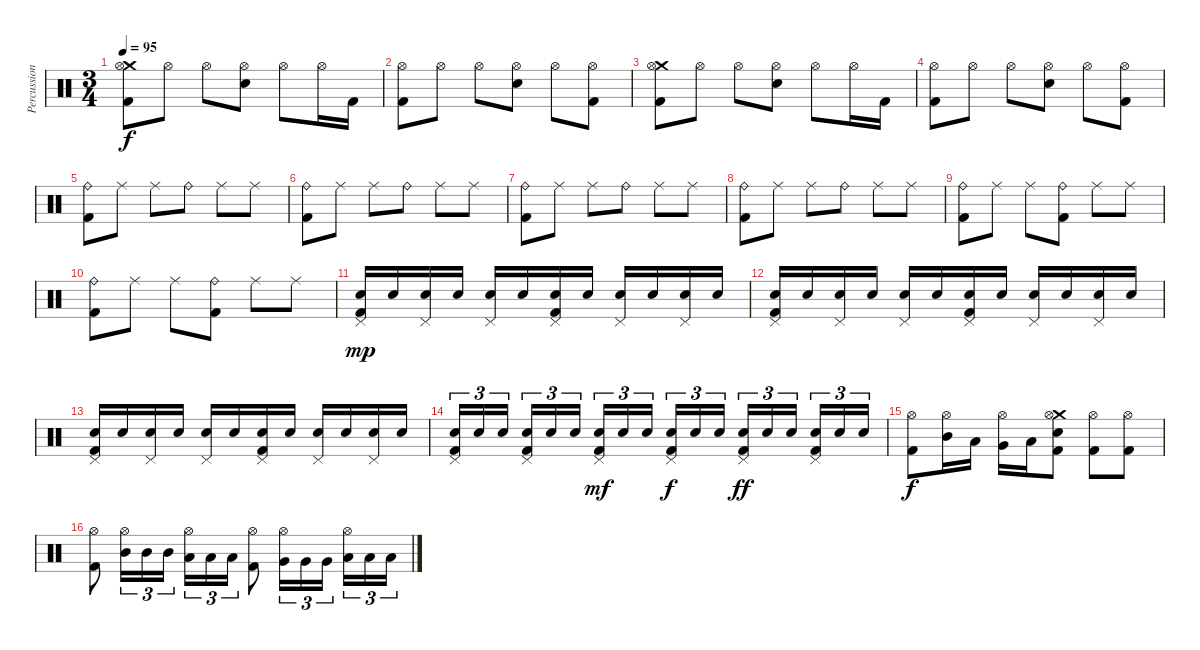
\track ("Percussion" "Percussion") {instrument percussion}
\staff {score}
\articulation defaults
\ts (3 4)
\tempo 95
\clef neutral
\ks c
("Crash medium (hit)" "Hi-Hat (open)" "Kick (hit) 2").8{dy f} "Hi-Hat (open)".8 "Hi-Hat (open)".8 ("Hi-Hat (open)" "Electric Snare (hit)").8 "Hi-Hat (open)".8 "Hi-Hat (open)".16 "Kick (hit) 2".16 |
("Hi-Hat (open)" "Kick (hit) 2").8 "Hi-Hat (open)".8 "Hi-Hat (open)".8 ("Hi-Hat (open)" "Electric Snare (hit)").8 "Hi-Hat (open)".8 ("Hi-Hat (open)" "Kick (hit) 2").8 |
("Crash medium (hit)" "Hi-Hat (open)" "Kick (hit) 2").8 "Hi-Hat (open)".8 "Hi-Hat (open)".8 ("Hi-Hat (open)" "Electric Snare (hit)").8 "Hi-Hat (open)".8 "Hi-Hat (open)".16 "Kick (hit) 2".16 |
("Hi-Hat (open)" "Kick (hit) 2").8 "Hi-Hat (open)".8 "Hi-Hat (open)".8 ("Hi-Hat (open)" "Electric Snare (hit)").8 "Hi-Hat (open)".8 ("Hi-Hat (open)" "Kick (hit) 2").8 |
("Ride (bell)" "Kick (hit) 2").8 "Ride (middle)".8 "Ride (middle)".8 "Ride (bell)".8 "Ride (middle)".8 "Ride (middle)".8 |
("Ride (bell)" "Kick (hit) 2").8 "Ride (middle)".8 "Ride (middle)".8 "Ride (bell)".8 "Ride (middle)".8 "Ride (middle)".8 |
("Ride (bell)" "Kick (hit) 2").8 "Ride (middle)".8 "Ride (middle)".8 "Ride (bell)".8 "Ride (middle)".8 "Ride (middle)".8 |
("Ride (bell)" "Kick (hit) 2").8 "Ride (middle)".8 "Ride (middle)".8 "Ride (bell)".8 "Ride (middle)".8 "Ride (middle)".8 |
("Ride (bell)" "Kick (hit) 2").8 "Ride (middle)".8 "Ride (middle)".8 ("Ride (bell)" "Kick (hit) 2").8 "Ride (middle)".8 "Ride (middle)".8 |
("Ride (bell)" "Kick (hit) 2").8 "Ride (middle)".8 "Ride (middle)".8 ("Ride (bell)" "Kick (hit) 2").8 "Ride (middle)".8 "Ride (middle)".8 |
("Pedal Hi-Hat (hit)" "Electric Snare (hit)" "Kick (hit) 2").16{dy mp} "Electric Snare (hit)".16 ("Pedal Hi-Hat (hit)" "Electric Snare (hit)").16 "Electric Snare (hit)".16 ("Pedal Hi-Hat (hit)" "Electric Snare (hit)").16 "Electric Snare (hit)".16 ("Pedal Hi-Hat (hit)" "Electric Snare (hit)" "Kick (hit) 2").16 "Electric Snare (hit)".16 ("Pedal Hi-Hat (hit)" "Electric Snare (hit)").16 "Electric Snare (hit)".16 ("Pedal Hi-Hat (hit)" "Electric Snare (hit)").16 "Electric Snare (hit)".16 |
("Pedal Hi-Hat (hit)" "Electric Snare (hit)" "Kick (hit) 2").16 "Electric Snare (hit)".16 ("Pedal Hi-Hat (hit)" "Electric Snare (hit)").16 "Electric Snare (hit)".16 ("Pedal Hi-Hat (hit)" "Electric Snare (hit)").16 "Electric Snare (hit)".16 ("Pedal Hi-Hat (hit)" "Electric Snare (hit)" "Kick (hit) 2").16 "Electric Snare (hit)".16 ("Pedal Hi-Hat (hit)" "Electric Snare (hit)").16 "Electric Snare (hit)".16 ("Pedal Hi-Hat (hit)" "Electric Snare (hit)").16 "Electric Snare (hit)".16 |
("Pedal Hi-Hat (hit)" "Electric Snare (hit)" "Kick (hit) 2").16 "Electric Snare (hit)".16 ("Pedal Hi-Hat (hit)" "Electric Snare (hit)").16 "Electric Snare (hit)".16 ("Pedal Hi-Hat (hit)" "Electric Snare (hit)").16 "Electric Snare (hit)".16 ("Pedal Hi-Hat (hit)" "Electric Snare (hit)" "Kick (hit) 2").16 "Electric Snare (hit)".16 ("Pedal Hi-Hat (hit)" "Electric Snare (hit)").16 "Electric Snare (hit)".16 ("Pedal Hi-Hat (hit)" "Electric Snare (hit)").16 "Electric Snare (hit)".16 |
("Pedal Hi-Hat (hit)" "Electric Snare (hit)" "Kick (hit) 2").16{tu (3 2)} "Electric Snare (hit)".16{tu (3 2)} "Electric Snare (hit)".16{tu (3 2)} ("Pedal Hi-Hat (hit)" "Electric Snare (hit)" "Kick (hit) 2").16{tu (3 2)} "Electric Snare (hit)".16{tu (3 2)} "Electric Snare (hit)".16{tu (3 2)} ("Pedal Hi-Hat (hit)" "Electric Snare (hit)" "Kick (hit) 2").16{tu (3 2) dy mf} "Electric Snare (hit)".16{tu (3 2)} "Electric Snare (hit)".16{tu (3 2)} ("Pedal Hi-Hat (hit)" "Electric Snare (hit)" "Kick (hit) 2").16{tu (3 2) dy f} "Electric Snare (hit)".16{tu (3 2)} "Electric Snare (hit)".16{tu (3 2)} ("Pedal Hi-Hat (hit)" "Electric Snare (hit)" "Kick (hit) 2").16{tu (3 2) dy ff} "Electric Snare (hit)".16{tu (3 2)} "Electric Snare (hit)".16{tu (3 2)} ("Pedal Hi-Hat (hit)" "Electric Snare (hit)" "Kick (hit) 2").16{tu (3 2)} "Electric Snare (hit)".16{tu (3 2)} "Electric Snare (hit)".16{tu (3 2)} |
("Hi-Hat (open)" "Kick (hit) 2").8{dy f} ("Hi-Hat (open)" "Mid Tom (hit)").16 "Low Tom (hit)".16 ("Hi-Hat (open)" "Very Low Tom (hit)").16 "Low Floor Tom (hit)".16 ("Crash medium (hit)" "Hi-Hat (open)" "Electric Snare (hit)" "Kick (hit) 2").8 ("Hi-Hat (open)" "Kick (hit) 2").8 ("Hi-Hat (open)" "Kick (hit) 2").8 |
("Hi-Hat (open)" "Kick (hit) 2").8 ("Hi-Hat (open)" "Mid Tom (hit)").16{tu (3 2)} "Mid Tom (hit)".16{tu (3 2)} "Mid Tom (hit)".16{tu (3 2)} ("Hi-Hat (open)" "Low Tom (hit)").16{tu (3 2)} "Low Tom (hit)".16{tu (3 2)} "Low Tom (hit)".16{tu (3 2)} ("Hi-Hat (open)" "Kick (hit) 2").8 ("Hi-Hat (open)" "Very Low Tom (hit)").16{tu (3 2)} "Very Low Tom (hit)".16{tu (3 2)} "Very Low Tom (hit)".16{tu (3 2)} ("Hi-Hat (open)" "Low Floor Tom (hit)").16{tu (3 2)} "Low Floor Tom (hit)".16{tu (3 2)} "Low Floor Tom (hit)".16{tu (3 2)}
